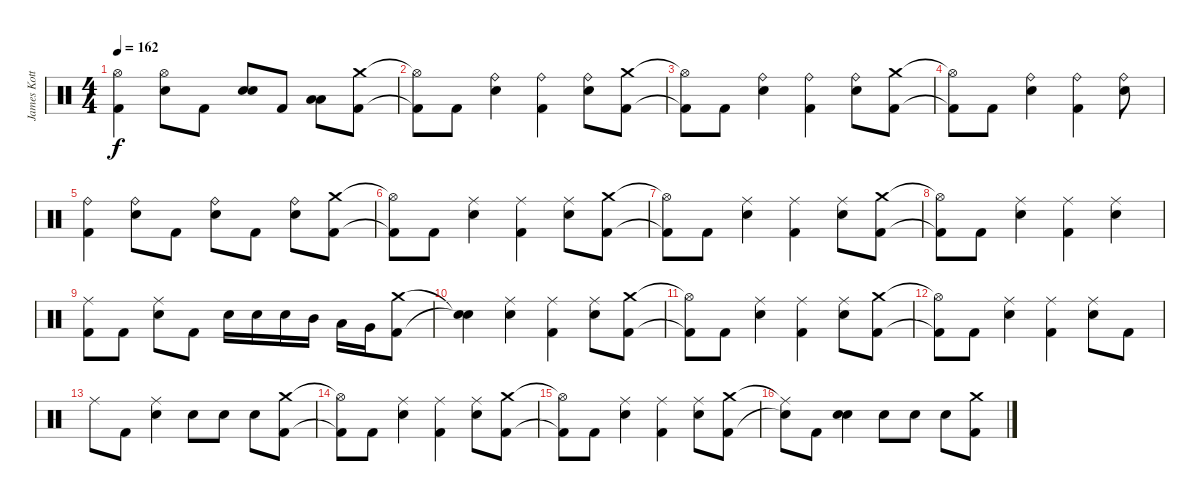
\track ("James Kottak" "James Kott") {instrument percussion}
\staff {score}
\articulation defaults
\ts (4 4)
\tempo 162
\clef neutral
\ks c
("Hi-Hat (open)" "Kick (hit) 2").4{dy f} ("Hi-Hat (open)" "Snare (hit) 2").8 "Kick (hit) 2".8 ("Snare (hit) 2" "Snare (hit) 2").8{bd 240} "Kick (hit) 2".8 ("Low Tom (hit)" "Low Tom (hit)").8{bd 240} ("Crash medium (hit)" "Kick (hit) 2").8 |
("Hi-Hat (open)"{t} "Kick (hit) 2"{t}).8 "Kick (hit) 2".8 ("Ride (bell)" "Snare (hit) 2").4 ("Ride (bell)" "Kick (hit) 2").4 ("Ride (bell)" "Snare (hit) 2").8 ("Crash medium (hit)" "Kick (hit) 2").8 |
("Hi-Hat (open)"{t} "Kick (hit) 2"{t}).8 "Kick (hit) 2".8 ("Ride (bell)" "Snare (hit) 2").4 ("Ride (bell)" "Kick (hit) 2").4 ("Ride (bell)" "Snare (hit) 2").8 ("Crash medium (hit)" "Kick (hit) 2").8 |
("Hi-Hat (open)"{t} "Kick (hit) 2"{t}).8 "Kick (hit) 2".8 ("Ride (bell)" "Snare (hit) 2").4 ("Ride (bell)" "Kick (hit) 2").4 ("Ride (bell)" "Snare (hit) 2").8 |
("Ride (bell)" "Kick (hit) 2").4 ("Ride (bell)" "Snare (hit) 2").8 "Kick (hit) 2".8 ("Ride (bell)" "Snare (hit) 2").8 "Kick (hit) 2".8 ("Ride (bell)" "Snare (hit) 2").8 ("Crash medium (hit)" "Kick (hit) 2").8 |
("Hi-Hat (open)"{t} "Kick (hit) 2"{t}).8 "Kick (hit) 2".8 ("Ride (middle)" "Snare (hit) 2").4 ("Ride (middle)" "Kick (hit) 2").4 ("Ride (middle)" "Snare (hit) 2").8 ("Crash medium (hit)" "Kick (hit) 2").8 |
("Hi-Hat (open)"{t} "Kick (hit) 2"{t}).8 "Kick (hit) 2".8 ("Ride (middle)" "Snare (hit) 2").4 ("Ride (middle)" "Kick (hit) 2").4 ("Ride (middle)" "Snare (hit) 2").8 ("Crash medium (hit)" "Kick (hit) 2").8 |
("Hi-Hat (open)"{t} "Kick (hit) 2"{t}).8 "Kick (hit) 2".8 ("Ride (middle)" "Snare (hit) 2").4 ("Ride (middle)" "Kick (hit) 2").4 ("Ride (middle)" "Snare (hit) 2").4 |
("Ride (middle)" "Kick (hit) 2").8 "Kick (hit) 2".8 ("Ride (middle)" "Snare (hit) 2").8 "Kick (hit) 2".8 "Snare (hit) 2".16 "Snare (hit) 2".16 "Snare (hit) 2".16 "Mid Tom (hit)".16 "Low Tom (hit)".16 "Very Low Tom (hit)".16 ("Crash medium (hit)" "Kick (hit) 2").8 |
("Snare (hit)"{t} "Snare (hit)"{t}).4 ("Ride (middle)" "Snare (hit) 2").4 ("Ride (middle)" "Kick (hit) 2").4 ("Ride (middle)" "Snare (hit) 2").8 ("Crash medium (hit)" "Kick (hit) 2").8 |
("Hi-Hat (open)"{t} "Kick (hit) 2"{t}).8 "Kick (hit) 2".8 ("Ride (middle)" "Snare (hit) 2").4 ("Ride (middle)" "Kick (hit) 2").4 ("Ride (middle)" "Snare (hit) 2").8 ("Crash medium (hit)" "Kick (hit) 2").8 |
("Hi-Hat (open)"{t} "Kick (hit) 2"{t}).8 "Kick (hit) 2".8 ("Ride (middle)" "Snare (hit) 2").4 ("Ride (middle)" "Kick (hit) 2").4 ("Ride (middle)" "Snare (hit) 2").8 "Kick (hit) 2".8 |
"Ride (middle)".8 "Kick (hit) 2".8 ("Ride (middle)" "Snare (hit) 2").4 "Snare (hit) 2".8 "Snare (hit) 2".8 "Snare (hit) 2".8 ("Crash medium (hit)" "Kick (hit) 2").8 |
("Hi-Hat (open)"{t} "Kick (hit) 2"{t}).8 "Kick (hit) 2".8 ("Ride (middle)" "Snare (hit) 2").4 ("Ride (middle)" "Kick (hit) 2").4 ("Ride (middle)" "Snare (hit) 2").8 ("Crash medium (hit)" "Kick (hit) 2").8 |
("Hi-Hat (open)"{t} "Kick (hit) 2"{t}).8 "Kick (hit) 2".8 ("Ride (middle)" "Snare (hit) 2").4 ("Ride (middle)" "Kick (hit) 2").4 ("Ride (middle)" "Snare (hit) 2").8 ("Crash medium (hit)" "Kick (hit) 2").8 |
("Ride (middle)"{t} "Snare (hit)"{t}).8 "Kick (hit) 2".8 ("Snare (hit) 2" "Snare (hit) 2").4{bd 240} "Snare (hit) 2".8 "Snare (hit) 2".8 "Snare (hit) 2".8 ("Crash medium (hit)" "Kick (hit) 2").8
